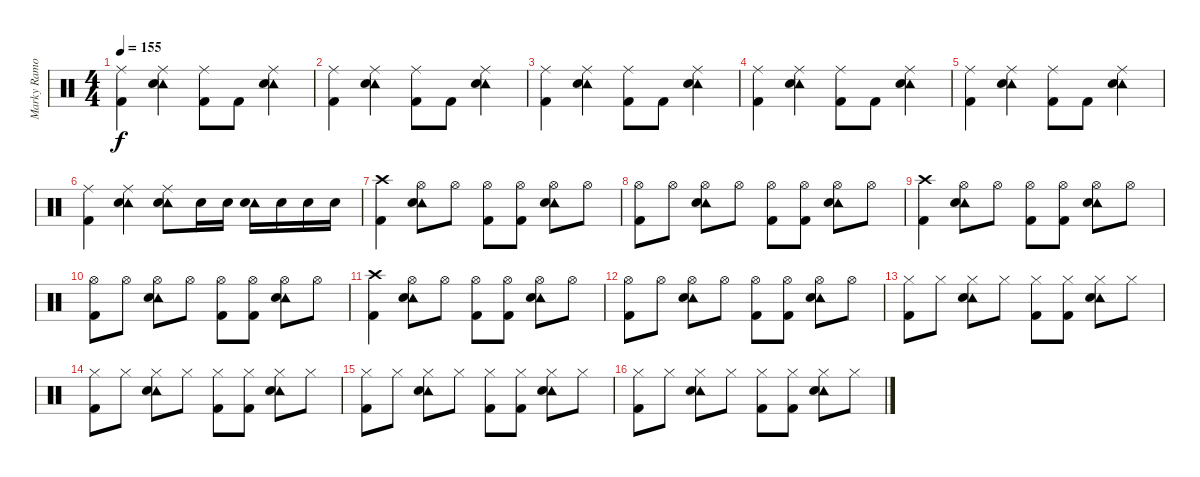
\track ("Marky Ramone" "Marky Ramo") {instrument percussion}
\staff {score}
\articulation defaults
\ts (4 4)
\tempo 155
\clef neutral
\ks c
("Kick (hit) 2" "Ride (middle)").4{dy f} ("Tambourine (hit)" "Electric Snare (hit)" "Ride (middle)").4 ("Kick (hit) 2" "Ride (middle)").8 "Kick (hit) 2".8 ("Tambourine (hit)" "Electric Snare (hit)" "Ride (middle)").4 |
("Kick (hit) 2" "Ride (middle)").4 ("Tambourine (hit)" "Electric Snare (hit)" "Ride (middle)").4 ("Kick (hit) 2" "Ride (middle)").8 "Kick (hit) 2".8 ("Tambourine (hit)" "Electric Snare (hit)" "Ride (middle)").4 |
("Kick (hit) 2" "Ride (middle)").4 ("Tambourine (hit)" "Electric Snare (hit)" "Ride (middle)").4 ("Kick (hit) 2" "Ride (middle)").8 "Kick (hit) 2".8 ("Tambourine (hit)" "Electric Snare (hit)" "Ride (middle)").4 |
("Kick (hit) 2" "Ride (middle)").4 ("Tambourine (hit)" "Electric Snare (hit)" "Ride (middle)").4 ("Kick (hit) 2" "Ride (middle)").8 "Kick (hit) 2".8 ("Tambourine (hit)" "Electric Snare (hit)" "Ride (middle)").4 |
("Kick (hit) 2" "Ride (middle)").4 ("Tambourine (hit)" "Electric Snare (hit)" "Ride (middle)").4 ("Kick (hit) 2" "Ride (middle)").8 "Kick (hit) 2".8 ("Tambourine (hit)" "Electric Snare (hit)" "Ride (middle)").4 |
("Kick (hit) 2" "Ride (middle)").4 ("Tambourine (hit)" "Electric Snare (hit)" "Ride (middle)").4 ("Tambourine (hit)" "Electric Snare (hit)" "Ride (middle)").8 "Electric Snare (hit)".16 "Electric Snare (hit)".16 ("Tambourine (hit)" "Electric Snare (hit)").16 "Electric Snare (hit)".16 "Electric Snare (hit)".16 "Electric Snare (hit)".16 |
("Kick (hit) 2" "Crash high (hit)").4 ("Tambourine (hit)" "Electric Snare (hit)" "Hi-Hat (open)").8 "Hi-Hat (open)".8 ("Kick (hit) 2" "Hi-Hat (open)").8 ("Kick (hit) 2" "Hi-Hat (open)").8 ("Tambourine (hit)" "Electric Snare (hit)" "Hi-Hat (open)").8 "Hi-Hat (open)".8 |
("Kick (hit) 2" "Hi-Hat (open)").8 "Hi-Hat (open)".8 ("Tambourine (hit)" "Electric Snare (hit)" "Hi-Hat (open)").8 "Hi-Hat (open)".8 ("Kick (hit) 2" "Hi-Hat (open)").8 ("Kick (hit) 2" "Hi-Hat (open)").8 ("Tambourine (hit)" "Electric Snare (hit)" "Hi-Hat (open)").8 "Hi-Hat (open)".8 |
("Kick (hit) 2" "Crash high (hit)").4 ("Tambourine (hit)" "Electric Snare (hit)" "Hi-Hat (open)").8 "Hi-Hat (open)".8 ("Kick (hit) 2" "Hi-Hat (open)").8 ("Kick (hit) 2" "Hi-Hat (open)").8 ("Tambourine (hit)" "Electric Snare (hit)" "Hi-Hat (open)").8 "Hi-Hat (open)".8 |
("Kick (hit) 2" "Hi-Hat (open)").8 "Hi-Hat (open)".8 ("Tambourine (hit)" "Electric Snare (hit)" "Hi-Hat (open)").8 "Hi-Hat (open)".8 ("Kick (hit) 2" "Hi-Hat (open)").8 ("Kick (hit) 2" "Hi-Hat (open)").8 ("Tambourine (hit)" "Electric Snare (hit)" "Hi-Hat (open)").8 "Hi-Hat (open)".8 |
("Kick (hit) 2" "Crash high (hit)").4 ("Tambourine (hit)" "Electric Snare (hit)" "Hi-Hat (open)").8 "Hi-Hat (open)".8 ("Kick (hit) 2" "Hi-Hat (open)").8 ("Kick (hit) 2" "Hi-Hat (open)").8 ("Tambourine (hit)" "Electric Snare (hit)" "Hi-Hat (open)").8 "Hi-Hat (open)".8 |
("Kick (hit) 2" "Hi-Hat (open)").8 "Hi-Hat (open)".8 ("Tambourine (hit)" "Electric Snare (hit)" "Hi-Hat (open)").8 "Hi-Hat (open)".8 ("Kick (hit) 2" "Hi-Hat (open)").8 ("Kick (hit) 2" "Hi-Hat (open)").8 ("Tambourine (hit)" "Electric Snare (hit)" "Hi-Hat (open)").8 "Hi-Hat (open)".8 |
("Kick (hit) 2" "Hi-Hat (closed)").8 "Hi-Hat (closed)".8 ("Tambourine (hit)" "Electric Snare (hit)" "Hi-Hat (closed)").8 "Hi-Hat (closed)".8 ("Kick (hit) 2" "Hi-Hat (closed)").8 ("Kick (hit) 2" "Hi-Hat (closed)").8 ("Tambourine (hit)" "Electric Snare (hit)" "Hi-Hat (closed)").8 "Hi-Hat (closed)".8 |
("Kick (hit) 2" "Hi-Hat (closed)").8 "Hi-Hat (closed)".8 ("Tambourine (hit)" "Electric Snare (hit)" "Hi-Hat (closed)").8 "Hi-Hat (closed)".8 ("Kick (hit) 2" "Hi-Hat (closed)").8 ("Kick (hit) 2" "Hi-Hat (closed)").8 ("Tambourine (hit)" "Electric Snare (hit)" "Hi-Hat (closed)").8 "Hi-Hat (closed)".8 |
("Kick (hit) 2" "Hi-Hat (closed)").8 "Hi-Hat (closed)".8 ("Tambourine (hit)" "Electric Snare (hit)" "Hi-Hat (closed)").8 "Hi-Hat (closed)".8 ("Kick (hit) 2" "Hi-Hat (closed)").8 ("Kick (hit) 2" "Hi-Hat (closed)").8 ("Tambourine (hit)" "Electric Snare (hit)" "Hi-Hat (closed)").8 "Hi-Hat (closed)".8 |
("Kick (hit) 2" "Hi-Hat (closed)").8 "Hi-Hat (closed)".8 ("Tambourine (hit)" "Electric Snare (hit)" "Hi-Hat (closed)").8 "Hi-Hat (closed)".8 ("Kick (hit) 2" "Hi-Hat (closed)").8 ("Kick (hit) 2" "Hi-Hat (closed)").8 ("Tambourine (hit)" "Electric Snare (hit)" "Hi-Hat (closed)").8 "Hi-Hat (closed)".8
